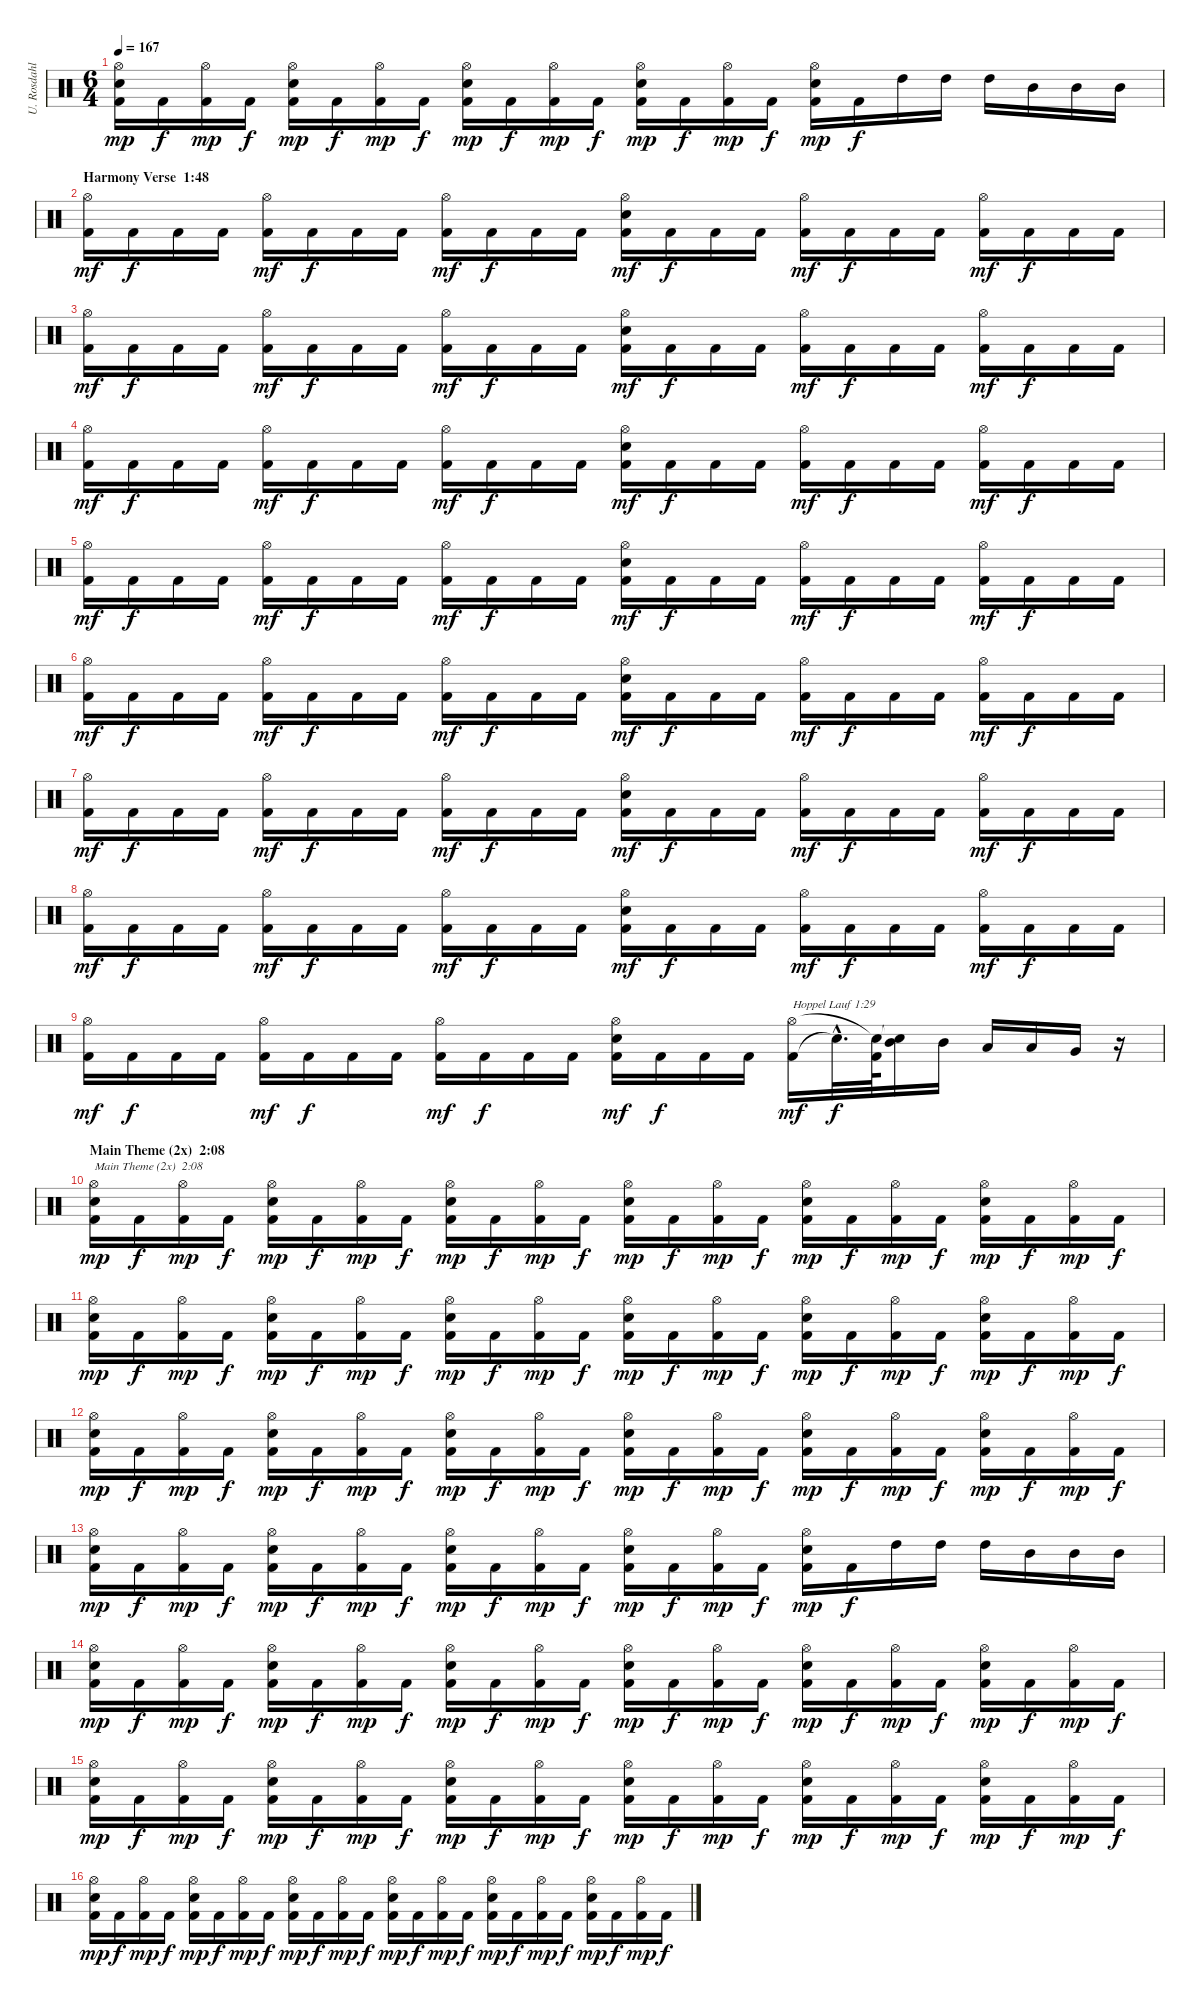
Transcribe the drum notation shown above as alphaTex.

\track ("U. Rosdahl" "U. Rosdahl") {instrument percussion}
\staff {score}
\articulation defaults
\ts (6 4)
\tempo 167
\clef neutral
\ks c
("Kick (hit) 2" "Electric Snare (hit)" "Hi-Hat (open)").16{dy mp} "Kick (hit) 2".16{dy f} ("Kick (hit) 2" "Hi-Hat (open)").16{dy mp} "Kick (hit) 2".16{dy f} ("Kick (hit) 2" "Electric Snare (hit)" "Hi-Hat (open)").16{dy mp} "Kick (hit) 2".16{dy f} ("Kick (hit) 2" "Hi-Hat (open)").16{dy mp} "Kick (hit) 2".16{dy f} ("Kick (hit) 2" "Electric Snare (hit)" "Hi-Hat (open)").16{dy mp} "Kick (hit) 2".16{dy f} ("Kick (hit) 2" "Hi-Hat (open)").16{dy mp} "Kick (hit) 2".16{dy f} ("Kick (hit) 2" "Electric Snare (hit)" "Hi-Hat (open)").16{dy mp} "Kick (hit) 2".16{dy f} ("Kick (hit) 2" "Hi-Hat (open)").16{dy mp} "Kick (hit) 2".16{dy f} ("Kick (hit) 2" "Electric Snare (hit)" "Hi-Hat (open)").16{dy mp} "Kick (hit) 2".16{dy f} "High Tom (hit)".16 "High Tom (hit)".16 "High Tom (hit)".16 "Mid Tom (hit)".16 "Mid Tom (hit)".16 "Mid Tom (hit)".16 |
\section ("" "Harmony Verse  1:48")
("Kick (hit) 2" "Hi-Hat (open)").16{dy mf} "Kick (hit) 2".16{dy f} "Kick (hit) 2".16 "Kick (hit) 2".16 ("Kick (hit) 2" "Hi-Hat (open)").16{dy mf} "Kick (hit) 2".16{dy f} "Kick (hit) 2".16 "Kick (hit) 2".16 ("Kick (hit) 2" "Hi-Hat (open)").16{dy mf} "Kick (hit) 2".16{dy f} "Kick (hit) 2".16 "Kick (hit) 2".16 ("Kick (hit) 2" "Electric Snare (hit)" "Hi-Hat (open)").16{dy mf} "Kick (hit) 2".16{dy f} "Kick (hit) 2".16 "Kick (hit) 2".16 ("Kick (hit) 2" "Hi-Hat (open)").16{dy mf} "Kick (hit) 2".16{dy f} "Kick (hit) 2".16 "Kick (hit) 2".16 ("Kick (hit) 2" "Hi-Hat (open)").16{dy mf} "Kick (hit) 2".16{dy f} "Kick (hit) 2".16 "Kick (hit) 2".16 |
("Kick (hit) 2" "Hi-Hat (open)").16{dy mf} "Kick (hit) 2".16{dy f} "Kick (hit) 2".16 "Kick (hit) 2".16 ("Kick (hit) 2" "Hi-Hat (open)").16{dy mf} "Kick (hit) 2".16{dy f} "Kick (hit) 2".16 "Kick (hit) 2".16 ("Kick (hit) 2" "Hi-Hat (open)").16{dy mf} "Kick (hit) 2".16{dy f} "Kick (hit) 2".16 "Kick (hit) 2".16 ("Kick (hit) 2" "Electric Snare (hit)" "Hi-Hat (open)").16{dy mf} "Kick (hit) 2".16{dy f} "Kick (hit) 2".16 "Kick (hit) 2".16 ("Kick (hit) 2" "Hi-Hat (open)").16{dy mf} "Kick (hit) 2".16{dy f} "Kick (hit) 2".16 "Kick (hit) 2".16 ("Kick (hit) 2" "Hi-Hat (open)").16{dy mf} "Kick (hit) 2".16{dy f} "Kick (hit) 2".16 "Kick (hit) 2".16 |
("Kick (hit) 2" "Hi-Hat (open)").16{dy mf} "Kick (hit) 2".16{dy f} "Kick (hit) 2".16 "Kick (hit) 2".16 ("Kick (hit) 2" "Hi-Hat (open)").16{dy mf} "Kick (hit) 2".16{dy f} "Kick (hit) 2".16 "Kick (hit) 2".16 ("Kick (hit) 2" "Hi-Hat (open)").16{dy mf} "Kick (hit) 2".16{dy f} "Kick (hit) 2".16 "Kick (hit) 2".16 ("Kick (hit) 2" "Electric Snare (hit)" "Hi-Hat (open)").16{dy mf} "Kick (hit) 2".16{dy f} "Kick (hit) 2".16 "Kick (hit) 2".16 ("Kick (hit) 2" "Hi-Hat (open)").16{dy mf} "Kick (hit) 2".16{dy f} "Kick (hit) 2".16 "Kick (hit) 2".16 ("Kick (hit) 2" "Hi-Hat (open)").16{dy mf} "Kick (hit) 2".16{dy f} "Kick (hit) 2".16 "Kick (hit) 2".16 |
("Kick (hit) 2" "Hi-Hat (open)").16{dy mf} "Kick (hit) 2".16{dy f} "Kick (hit) 2".16 "Kick (hit) 2".16 ("Kick (hit) 2" "Hi-Hat (open)").16{dy mf} "Kick (hit) 2".16{dy f} "Kick (hit) 2".16 "Kick (hit) 2".16 ("Kick (hit) 2" "Hi-Hat (open)").16{dy mf} "Kick (hit) 2".16{dy f} "Kick (hit) 2".16 "Kick (hit) 2".16 ("Kick (hit) 2" "Electric Snare (hit)" "Hi-Hat (open)").16{dy mf} "Kick (hit) 2".16{dy f} "Kick (hit) 2".16 "Kick (hit) 2".16 ("Kick (hit) 2" "Hi-Hat (open)").16{dy mf} "Kick (hit) 2".16{dy f} "Kick (hit) 2".16 "Kick (hit) 2".16 ("Kick (hit) 2" "Hi-Hat (open)").16{dy mf} "Kick (hit) 2".16{dy f} "Kick (hit) 2".16 "Kick (hit) 2".16 |
("Kick (hit) 2" "Hi-Hat (open)").16{dy mf} "Kick (hit) 2".16{dy f} "Kick (hit) 2".16 "Kick (hit) 2".16 ("Kick (hit) 2" "Hi-Hat (open)").16{dy mf} "Kick (hit) 2".16{dy f} "Kick (hit) 2".16 "Kick (hit) 2".16 ("Kick (hit) 2" "Hi-Hat (open)").16{dy mf} "Kick (hit) 2".16{dy f} "Kick (hit) 2".16 "Kick (hit) 2".16 ("Kick (hit) 2" "Electric Snare (hit)" "Hi-Hat (open)").16{dy mf} "Kick (hit) 2".16{dy f} "Kick (hit) 2".16 "Kick (hit) 2".16 ("Kick (hit) 2" "Hi-Hat (open)").16{dy mf} "Kick (hit) 2".16{dy f} "Kick (hit) 2".16 "Kick (hit) 2".16 ("Kick (hit) 2" "Hi-Hat (open)").16{dy mf} "Kick (hit) 2".16{dy f} "Kick (hit) 2".16 "Kick (hit) 2".16 |
("Kick (hit) 2" "Hi-Hat (open)").16{dy mf} "Kick (hit) 2".16{dy f} "Kick (hit) 2".16 "Kick (hit) 2".16 ("Kick (hit) 2" "Hi-Hat (open)").16{dy mf} "Kick (hit) 2".16{dy f} "Kick (hit) 2".16 "Kick (hit) 2".16 ("Kick (hit) 2" "Hi-Hat (open)").16{dy mf} "Kick (hit) 2".16{dy f} "Kick (hit) 2".16 "Kick (hit) 2".16 ("Kick (hit) 2" "Electric Snare (hit)" "Hi-Hat (open)").16{dy mf} "Kick (hit) 2".16{dy f} "Kick (hit) 2".16 "Kick (hit) 2".16 ("Kick (hit) 2" "Hi-Hat (open)").16{dy mf} "Kick (hit) 2".16{dy f} "Kick (hit) 2".16 "Kick (hit) 2".16 ("Kick (hit) 2" "Hi-Hat (open)").16{dy mf} "Kick (hit) 2".16{dy f} "Kick (hit) 2".16 "Kick (hit) 2".16 |
("Kick (hit) 2" "Hi-Hat (open)").16{dy mf} "Kick (hit) 2".16{dy f} "Kick (hit) 2".16 "Kick (hit) 2".16 ("Kick (hit) 2" "Hi-Hat (open)").16{dy mf} "Kick (hit) 2".16{dy f} "Kick (hit) 2".16 "Kick (hit) 2".16 ("Kick (hit) 2" "Hi-Hat (open)").16{dy mf} "Kick (hit) 2".16{dy f} "Kick (hit) 2".16 "Kick (hit) 2".16 ("Kick (hit) 2" "Electric Snare (hit)" "Hi-Hat (open)").16{dy mf} "Kick (hit) 2".16{dy f} "Kick (hit) 2".16 "Kick (hit) 2".16 ("Kick (hit) 2" "Hi-Hat (open)").16{dy mf} "Kick (hit) 2".16{dy f} "Kick (hit) 2".16 "Kick (hit) 2".16 ("Kick (hit) 2" "Hi-Hat (open)").16{dy mf} "Kick (hit) 2".16{dy f} "Kick (hit) 2".16 "Kick (hit) 2".16 |
("Kick (hit) 2" "Hi-Hat (open)").16{dy mf} "Kick (hit) 2".16{dy f} "Kick (hit) 2".16 "Kick (hit) 2".16 ("Kick (hit) 2" "Hi-Hat (open)").16{dy mf} "Kick (hit) 2".16{dy f} "Kick (hit) 2".16 "Kick (hit) 2".16 ("Kick (hit) 2" "Hi-Hat (open)").16{dy mf} "Kick (hit) 2".16{dy f} "Kick (hit) 2".16 "Kick (hit) 2".16 ("Kick (hit) 2" "Electric Snare (hit)" "Hi-Hat (open)").16{dy mf} "Kick (hit) 2".16{dy f} "Kick (hit) 2".16 "Kick (hit) 2".16 ("Kick (hit) 2" "Hi-Hat (open)").16{txt "Hoppel Lauf 1:29" dy mf} "Snare (hit)"{hac t}.32{d dy f} ("Kick (hit) 2" "Snare (hit)"{t}).64 ("Mid Tom (hit)" "Snare (hit)"{t}).16 "Mid Tom (hit)".16 "Low Tom (hit)".16 "Low Tom (hit)".16 "Very Low Tom (hit)".16 r.16 |
\section ("" "Main Theme (2x)  2:08")
("Kick (hit) 2" "Electric Snare (hit)" "Hi-Hat (open)").16{txt "Main Theme (2x)  2:08" dy mp} "Kick (hit) 2".16{dy f} ("Kick (hit) 2" "Hi-Hat (open)").16{dy mp} "Kick (hit) 2".16{dy f} ("Kick (hit) 2" "Electric Snare (hit)" "Hi-Hat (open)").16{dy mp} "Kick (hit) 2".16{dy f} ("Kick (hit) 2" "Hi-Hat (open)").16{dy mp} "Kick (hit) 2".16{dy f} ("Kick (hit) 2" "Electric Snare (hit)" "Hi-Hat (open)").16{dy mp} "Kick (hit) 2".16{dy f} ("Kick (hit) 2" "Hi-Hat (open)").16{dy mp} "Kick (hit) 2".16{dy f} ("Kick (hit) 2" "Electric Snare (hit)" "Hi-Hat (open)").16{dy mp} "Kick (hit) 2".16{dy f} ("Kick (hit) 2" "Hi-Hat (open)").16{dy mp} "Kick (hit) 2".16{dy f} ("Kick (hit) 2" "Electric Snare (hit)" "Hi-Hat (open)").16{dy mp} "Kick (hit) 2".16{dy f} ("Kick (hit) 2" "Hi-Hat (open)").16{dy mp} "Kick (hit) 2".16{dy f} ("Kick (hit) 2" "Electric Snare (hit)" "Hi-Hat (open)").16{dy mp} "Kick (hit) 2".16{dy f} ("Kick (hit) 2" "Hi-Hat (open)").16{dy mp} "Kick (hit) 2".16{dy f} |
("Kick (hit) 2" "Electric Snare (hit)" "Hi-Hat (open)").16{dy mp} "Kick (hit) 2".16{dy f} ("Kick (hit) 2" "Hi-Hat (open)").16{dy mp} "Kick (hit) 2".16{dy f} ("Kick (hit) 2" "Electric Snare (hit)" "Hi-Hat (open)").16{dy mp} "Kick (hit) 2".16{dy f} ("Kick (hit) 2" "Hi-Hat (open)").16{dy mp} "Kick (hit) 2".16{dy f} ("Kick (hit) 2" "Electric Snare (hit)" "Hi-Hat (open)").16{dy mp} "Kick (hit) 2".16{dy f} ("Kick (hit) 2" "Hi-Hat (open)").16{dy mp} "Kick (hit) 2".16{dy f} ("Kick (hit) 2" "Electric Snare (hit)" "Hi-Hat (open)").16{dy mp} "Kick (hit) 2".16{dy f} ("Kick (hit) 2" "Hi-Hat (open)").16{dy mp} "Kick (hit) 2".16{dy f} ("Kick (hit) 2" "Electric Snare (hit)" "Hi-Hat (open)").16{dy mp} "Kick (hit) 2".16{dy f} ("Kick (hit) 2" "Hi-Hat (open)").16{dy mp} "Kick (hit) 2".16{dy f} ("Kick (hit) 2" "Electric Snare (hit)" "Hi-Hat (open)").16{dy mp} "Kick (hit) 2".16{dy f} ("Kick (hit) 2" "Hi-Hat (open)").16{dy mp} "Kick (hit) 2".16{dy f} |
("Kick (hit) 2" "Electric Snare (hit)" "Hi-Hat (open)").16{dy mp} "Kick (hit) 2".16{dy f} ("Kick (hit) 2" "Hi-Hat (open)").16{dy mp} "Kick (hit) 2".16{dy f} ("Kick (hit) 2" "Electric Snare (hit)" "Hi-Hat (open)").16{dy mp} "Kick (hit) 2".16{dy f} ("Kick (hit) 2" "Hi-Hat (open)").16{dy mp} "Kick (hit) 2".16{dy f} ("Kick (hit) 2" "Electric Snare (hit)" "Hi-Hat (open)").16{dy mp} "Kick (hit) 2".16{dy f} ("Kick (hit) 2" "Hi-Hat (open)").16{dy mp} "Kick (hit) 2".16{dy f} ("Kick (hit) 2" "Electric Snare (hit)" "Hi-Hat (open)").16{dy mp} "Kick (hit) 2".16{dy f} ("Kick (hit) 2" "Hi-Hat (open)").16{dy mp} "Kick (hit) 2".16{dy f} ("Kick (hit) 2" "Electric Snare (hit)" "Hi-Hat (open)").16{dy mp} "Kick (hit) 2".16{dy f} ("Kick (hit) 2" "Hi-Hat (open)").16{dy mp} "Kick (hit) 2".16{dy f} ("Kick (hit) 2" "Electric Snare (hit)" "Hi-Hat (open)").16{dy mp} "Kick (hit) 2".16{dy f} ("Kick (hit) 2" "Hi-Hat (open)").16{dy mp} "Kick (hit) 2".16{dy f} |
("Kick (hit) 2" "Electric Snare (hit)" "Hi-Hat (open)").16{dy mp} "Kick (hit) 2".16{dy f} ("Kick (hit) 2" "Hi-Hat (open)").16{dy mp} "Kick (hit) 2".16{dy f} ("Kick (hit) 2" "Electric Snare (hit)" "Hi-Hat (open)").16{dy mp} "Kick (hit) 2".16{dy f} ("Kick (hit) 2" "Hi-Hat (open)").16{dy mp} "Kick (hit) 2".16{dy f} ("Kick (hit) 2" "Electric Snare (hit)" "Hi-Hat (open)").16{dy mp} "Kick (hit) 2".16{dy f} ("Kick (hit) 2" "Hi-Hat (open)").16{dy mp} "Kick (hit) 2".16{dy f} ("Kick (hit) 2" "Electric Snare (hit)" "Hi-Hat (open)").16{dy mp} "Kick (hit) 2".16{dy f} ("Kick (hit) 2" "Hi-Hat (open)").16{dy mp} "Kick (hit) 2".16{dy f} ("Kick (hit) 2" "Electric Snare (hit)" "Hi-Hat (open)").16{dy mp} "Kick (hit) 2".16{dy f} "High Tom (hit)".16 "High Tom (hit)".16 "High Tom (hit)".16 "Mid Tom (hit)".16 "Mid Tom (hit)".16 "Mid Tom (hit)".16 |
("Kick (hit) 2" "Electric Snare (hit)" "Hi-Hat (open)").16{dy mp} "Kick (hit) 2".16{dy f} ("Kick (hit) 2" "Hi-Hat (open)").16{dy mp} "Kick (hit) 2".16{dy f} ("Kick (hit) 2" "Electric Snare (hit)" "Hi-Hat (open)").16{dy mp} "Kick (hit) 2".16{dy f} ("Kick (hit) 2" "Hi-Hat (open)").16{dy mp} "Kick (hit) 2".16{dy f} ("Kick (hit) 2" "Electric Snare (hit)" "Hi-Hat (open)").16{dy mp} "Kick (hit) 2".16{dy f} ("Kick (hit) 2" "Hi-Hat (open)").16{dy mp} "Kick (hit) 2".16{dy f} ("Kick (hit) 2" "Electric Snare (hit)" "Hi-Hat (open)").16{dy mp} "Kick (hit) 2".16{dy f} ("Kick (hit) 2" "Hi-Hat (open)").16{dy mp} "Kick (hit) 2".16{dy f} ("Kick (hit) 2" "Electric Snare (hit)" "Hi-Hat (open)").16{dy mp} "Kick (hit) 2".16{dy f} ("Kick (hit) 2" "Hi-Hat (open)").16{dy mp} "Kick (hit) 2".16{dy f} ("Kick (hit) 2" "Electric Snare (hit)" "Hi-Hat (open)").16{dy mp} "Kick (hit) 2".16{dy f} ("Kick (hit) 2" "Hi-Hat (open)").16{dy mp} "Kick (hit) 2".16{dy f} |
("Kick (hit) 2" "Electric Snare (hit)" "Hi-Hat (open)").16{dy mp} "Kick (hit) 2".16{dy f} ("Kick (hit) 2" "Hi-Hat (open)").16{dy mp} "Kick (hit) 2".16{dy f} ("Kick (hit) 2" "Electric Snare (hit)" "Hi-Hat (open)").16{dy mp} "Kick (hit) 2".16{dy f} ("Kick (hit) 2" "Hi-Hat (open)").16{dy mp} "Kick (hit) 2".16{dy f} ("Kick (hit) 2" "Electric Snare (hit)" "Hi-Hat (open)").16{dy mp} "Kick (hit) 2".16{dy f} ("Kick (hit) 2" "Hi-Hat (open)").16{dy mp} "Kick (hit) 2".16{dy f} ("Kick (hit) 2" "Electric Snare (hit)" "Hi-Hat (open)").16{dy mp} "Kick (hit) 2".16{dy f} ("Kick (hit) 2" "Hi-Hat (open)").16{dy mp} "Kick (hit) 2".16{dy f} ("Kick (hit) 2" "Electric Snare (hit)" "Hi-Hat (open)").16{dy mp} "Kick (hit) 2".16{dy f} ("Kick (hit) 2" "Hi-Hat (open)").16{dy mp} "Kick (hit) 2".16{dy f} ("Kick (hit) 2" "Electric Snare (hit)" "Hi-Hat (open)").16{dy mp} "Kick (hit) 2".16{dy f} ("Kick (hit) 2" "Hi-Hat (open)").16{dy mp} "Kick (hit) 2".16{dy f} |
("Kick (hit) 2" "Electric Snare (hit)" "Hi-Hat (open)").16{dy mp} "Kick (hit) 2".16{dy f} ("Kick (hit) 2" "Hi-Hat (open)").16{dy mp} "Kick (hit) 2".16{dy f} ("Kick (hit) 2" "Electric Snare (hit)" "Hi-Hat (open)").16{dy mp} "Kick (hit) 2".16{dy f} ("Kick (hit) 2" "Hi-Hat (open)").16{dy mp} "Kick (hit) 2".16{dy f} ("Kick (hit) 2" "Electric Snare (hit)" "Hi-Hat (open)").16{dy mp} "Kick (hit) 2".16{dy f} ("Kick (hit) 2" "Hi-Hat (open)").16{dy mp} "Kick (hit) 2".16{dy f} ("Kick (hit) 2" "Electric Snare (hit)" "Hi-Hat (open)").16{dy mp} "Kick (hit) 2".16{dy f} ("Kick (hit) 2" "Hi-Hat (open)").16{dy mp} "Kick (hit) 2".16{dy f} ("Kick (hit) 2" "Electric Snare (hit)" "Hi-Hat (open)").16{dy mp} "Kick (hit) 2".16{dy f} ("Kick (hit) 2" "Hi-Hat (open)").16{dy mp} "Kick (hit) 2".16{dy f} ("Kick (hit) 2" "Electric Snare (hit)" "Hi-Hat (open)").16{dy mp} "Kick (hit) 2".16{dy f} ("Kick (hit) 2" "Hi-Hat (open)").16{dy mp} "Kick (hit) 2".16{dy f}
